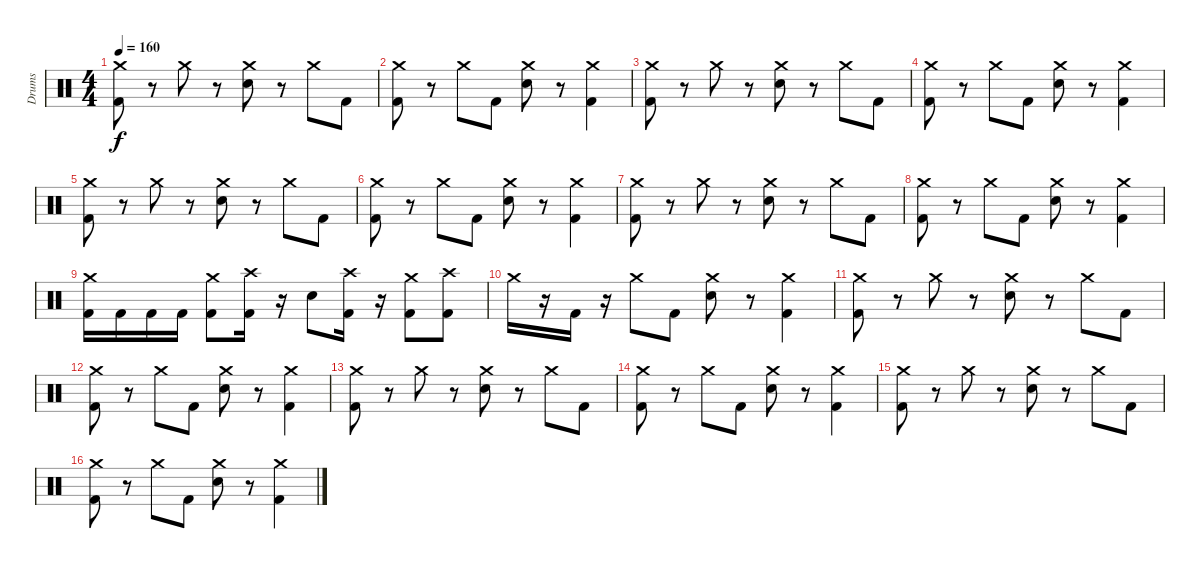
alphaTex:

\track ("Drums" "Drums") {instrument percussion}
\staff {score}
\articulation defaults
\ts (4 4)
\tempo 160
\clef neutral
\ks c
("Kick (hit) 2" "Crash medium (hit)").8{dy f} r.8 "Crash medium (hit)".8 r.8 ("Electric Snare (hit)" "Crash medium (hit)").8 r.8 "Crash medium (hit)".8 "Kick (hit) 2".8 |
("Kick (hit) 2" "Crash medium (hit)").8 r.8 "Crash medium (hit)".8 "Kick (hit) 2".8 ("Electric Snare (hit)" "Crash medium (hit)").8 r.8 ("Kick (hit) 2" "Crash medium (hit)").4 |
("Kick (hit) 2" "Crash medium (hit)").8 r.8 "Crash medium (hit)".8 r.8 ("Electric Snare (hit)" "Crash medium (hit)").8 r.8 "Crash medium (hit)".8 "Kick (hit) 2".8 |
("Kick (hit) 2" "Crash medium (hit)").8 r.8 "Crash medium (hit)".8 "Kick (hit) 2".8 ("Electric Snare (hit)" "Crash medium (hit)").8 r.8 ("Kick (hit) 2" "Crash medium (hit)").4 |
("Kick (hit) 2" "Crash medium (hit)").8 r.8 "Crash medium (hit)".8 r.8 ("Electric Snare (hit)" "Crash medium (hit)").8 r.8 "Crash medium (hit)".8 "Kick (hit) 2".8 |
("Kick (hit) 2" "Crash medium (hit)").8 r.8 "Crash medium (hit)".8 "Kick (hit) 2".8 ("Electric Snare (hit)" "Crash medium (hit)").8 r.8 ("Kick (hit) 2" "Crash medium (hit)").4 |
("Kick (hit) 2" "Crash medium (hit)").8 r.8 "Crash medium (hit)".8 r.8 ("Electric Snare (hit)" "Crash medium (hit)").8 r.8 "Crash medium (hit)".8 "Kick (hit) 2".8 |
("Kick (hit) 2" "Crash medium (hit)").8 r.8 "Crash medium (hit)".8 "Kick (hit) 2".8 ("Electric Snare (hit)" "Crash medium (hit)").8 r.8 ("Kick (hit) 2" "Crash medium (hit)").4 |
("Kick (hit) 2" "Crash medium (hit)").16 "Kick (hit) 2".16 "Kick (hit) 2".16 "Kick (hit) 2".16 ("Kick (hit) 2" "Crash medium (hit)").8 ("Crash high (hit)" "Kick (hit) 2").16 r.16 "Electric Snare (hit)".8 ("Crash high (hit)" "Kick (hit) 2").16 r.16 ("Kick (hit) 2" "Crash medium (hit)").8 ("Crash high (hit)" "Kick (hit) 2").8 |
"Crash medium (hit)".16 r.16 "Kick (hit) 2".16 r.16 "Crash medium (hit)".8 "Kick (hit) 2".8 ("Electric Snare (hit)" "Crash medium (hit)").8 r.8 ("Kick (hit) 2" "Crash medium (hit)").4 |
("Kick (hit) 2" "Crash medium (hit)").8 r.8 "Crash medium (hit)".8 r.8 ("Electric Snare (hit)" "Crash medium (hit)").8 r.8 "Crash medium (hit)".8 "Kick (hit) 2".8 |
("Kick (hit) 2" "Crash medium (hit)").8 r.8 "Crash medium (hit)".8 "Kick (hit) 2".8 ("Electric Snare (hit)" "Crash medium (hit)").8 r.8 ("Kick (hit) 2" "Crash medium (hit)").4 |
("Kick (hit) 2" "Crash medium (hit)").8 r.8 "Crash medium (hit)".8 r.8 ("Electric Snare (hit)" "Crash medium (hit)").8 r.8 "Crash medium (hit)".8 "Kick (hit) 2".8 |
("Kick (hit) 2" "Crash medium (hit)").8 r.8 "Crash medium (hit)".8 "Kick (hit) 2".8 ("Electric Snare (hit)" "Crash medium (hit)").8 r.8 ("Kick (hit) 2" "Crash medium (hit)").4 |
("Kick (hit) 2" "Crash medium (hit)").8 r.8 "Crash medium (hit)".8 r.8 ("Electric Snare (hit)" "Crash medium (hit)").8 r.8 "Crash medium (hit)".8 "Kick (hit) 2".8 |
("Kick (hit) 2" "Crash medium (hit)").8 r.8 "Crash medium (hit)".8 "Kick (hit) 2".8 ("Electric Snare (hit)" "Crash medium (hit)").8 r.8 ("Kick (hit) 2" "Crash medium (hit)").4
